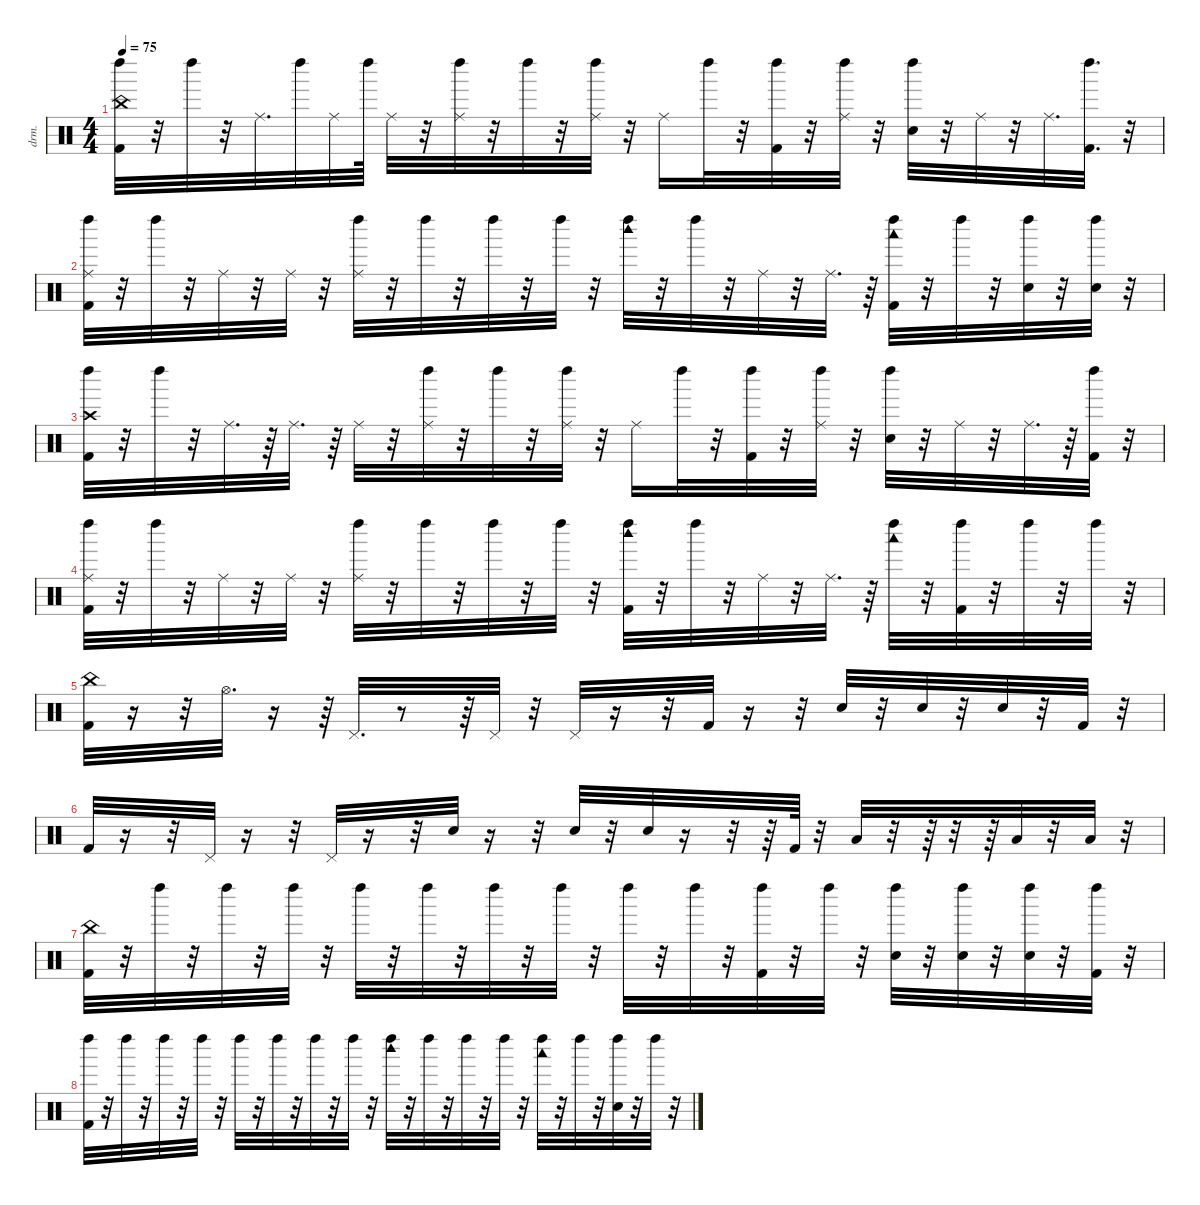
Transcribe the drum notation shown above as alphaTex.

\defaultSystemsLayout 4
\hideDynamics
\bracketExtendMode nobrackets
\otherSystemsTrackNameOrientation horizontal
\track ("Drums" "drm.") {instrument percussion}
\staff {score}
\articulation defaults
\ts (4 4)
\tempo 75
\clef neutral
\ks c
("China (hit)" "Kick (hit) 2" "Left Maraca (hit)").32{dy f} r.32 "Left Maraca (hit)".32 r.32 "Ride (middle)".32{d} "Left Maraca (hit)".32 "Ride (middle)".32 "Left Maraca (hit)".64 "Ride (middle)".32 r.32 ("Ride (middle)" "Left Maraca (hit)").32 r.32 "Left Maraca (hit)".32 r.32 ("Ride (middle)" "Left Maraca (hit)").32 r.32 "Ride (middle)".16 "Left Maraca (hit)".32 r.32 ("Kick (hit) 2" "Left Maraca (hit)").32 r.32 ("Ride (middle)" "Left Maraca (hit)").32 r.32 ("Snare (hit) 2" "Left Maraca (hit)").32 r.32 "Ride (middle)".32 r.32 "Ride (middle)".32{d} ("Kick (hit) 2" "Left Maraca (hit)").32{d} r.32 |
("Ride (middle)" "Kick (hit) 2" "Left Maraca (hit)").32 r.32 "Left Maraca (hit)".32 r.32 "Ride (middle)".32 r.32 "Ride (middle)".32 r.32 ("Ride (middle)" "Left Maraca (hit)").32 r.32 "Left Maraca (hit)".32 r.32 "Left Maraca (hit)".32 r.32 "Left Maraca (hit)".32 r.32 ("Woodblock high (hit)" "Left Maraca (hit)").32 r.32 "Left Maraca (hit)".32 r.32 "Ride (middle)".32 r.32 "Ride (middle)".32{d} r.64 ("Kick (hit) 2" "Woodblock low (hit)" "Left Maraca (hit)").32 r.32 "Left Maraca (hit)".32 r.32 ("Snare (hit) 2" "Left Maraca (hit)").32 r.32 ("Snare (hit) 2" "Left Maraca (hit)").32 r.32 |
("Crash high (hit)" "Kick (hit) 2" "Left Maraca (hit)").32 r.32 "Left Maraca (hit)".32 r.32 "Ride (middle)".32{d} r.64 "Ride (middle)".32{d} r.64 "Ride (middle)".32 r.32 ("Ride (middle)" "Left Maraca (hit)").32 r.32 "Left Maraca (hit)".32 r.32 ("Ride (middle)" "Left Maraca (hit)").32 r.32 "Ride (middle)".16 "Left Maraca (hit)".32 r.32 ("Kick (hit) 2" "Left Maraca (hit)").32 r.32 ("Ride (middle)" "Left Maraca (hit)").32 r.32 ("Snare (hit) 2" "Left Maraca (hit)").32 r.32 "Ride (middle)".32 r.32 "Ride (middle)".32{d} r.64 ("Kick (hit) 2" "Left Maraca (hit)").32 r.32 |
("Ride (middle)" "Kick (hit) 2" "Left Maraca (hit)").32 r.32 "Left Maraca (hit)".32 r.32 "Ride (middle)".32 r.32 "Ride (middle)".32 r.32 ("Ride (middle)" "Left Maraca (hit)").32 r.32 "Left Maraca (hit)".32 r.32 "Left Maraca (hit)".32 r.32 "Left Maraca (hit)".32 r.32 ("Kick (hit) 2" "Woodblock high (hit)" "Left Maraca (hit)").32 r.32 "Left Maraca (hit)".32 r.32 "Ride (middle)".32 r.32 "Ride (middle)".32{d} r.64 ("Woodblock low (hit)" "Left Maraca (hit)").32 r.32 ("Kick (hit) 2" "Left Maraca (hit)").32 r.32 "Left Maraca (hit)".32 r.32 "Left Maraca (hit)".32 r.32 |
("China (hit)" "Kick (hit) 2").32 r.16 r.32 "Hi-Hat (open)".32{d} r.16 r.64 "Pedal Hi-Hat (hit)".32{d} r.8 r.64 "Pedal Hi-Hat (hit)".32 r.32 "Pedal Hi-Hat (hit)".32 r.16 r.32 "Kick (hit) 2".32 r.16 r.32 "Snare (hit) 2".32 r.32 "Snare (hit) 2".32 r.32 "Snare (hit) 2".32 r.32 "Kick (hit) 2".32 r.32 |
"Kick (hit) 2".32 r.16 r.32 "Pedal Hi-Hat (hit)".32 r.16 r.32 "Pedal Hi-Hat (hit)".32 r.16 r.32 "Snare (hit) 2".32 r.16 r.32 "Snare (hit) 2".32 r.32 "Snare (hit) 2".32 r.16 r.32 r.64 "Kick (hit) 2".64 r.32 "Low Tom (hit)".32 r.32 r.64 r.32 r.64 "Low Tom (hit)".32 r.32 "Low Tom (hit)".32 r.32 |
("China (hit)" "Kick (hit) 2").32 r.32 "Left Maraca (hit)".32 r.32 "Left Maraca (hit)".32 r.32 "Left Maraca (hit)".32 r.32 "Left Maraca (hit)".32 r.32 "Left Maraca (hit)".32 r.32 "Left Maraca (hit)".32 r.32 "Left Maraca (hit)".32 r.32 "Left Maraca (hit)".32 r.32 "Left Maraca (hit)".32 r.32 ("Kick (hit) 2" "Left Maraca (hit)").32 r.32 "Left Maraca (hit)".32 r.32 ("Snare (hit) 2" "Left Maraca (hit)").32 r.32 ("Snare (hit) 2" "Left Maraca (hit)").32 r.32 ("Snare (hit) 2" "Left Maraca (hit)").32 r.32 ("Kick (hit) 2" "Left Maraca (hit)").32 r.32 |
("Kick (hit) 2" "Left Maraca (hit)").32 r.32 "Left Maraca (hit)".32 r.32 "Left Maraca (hit)".32 r.32 "Left Maraca (hit)".32 r.32 "Left Maraca (hit)".32 r.32 "Left Maraca (hit)".32 r.32 "Left Maraca (hit)".32 r.32 "Left Maraca (hit)".32 r.32 ("Woodblock high (hit)" "Left Maraca (hit)").32 r.32 "Left Maraca (hit)".32 r.32 "Left Maraca (hit)".32 r.32 "Left Maraca (hit)".32 r.32 ("Woodblock low (hit)" "Left Maraca (hit)").32 r.32 "Left Maraca (hit)".32 r.32 ("Hand Clap (hit)" "Left Maraca (hit)").32 r.32 "Left Maraca (hit)".32 r.32
